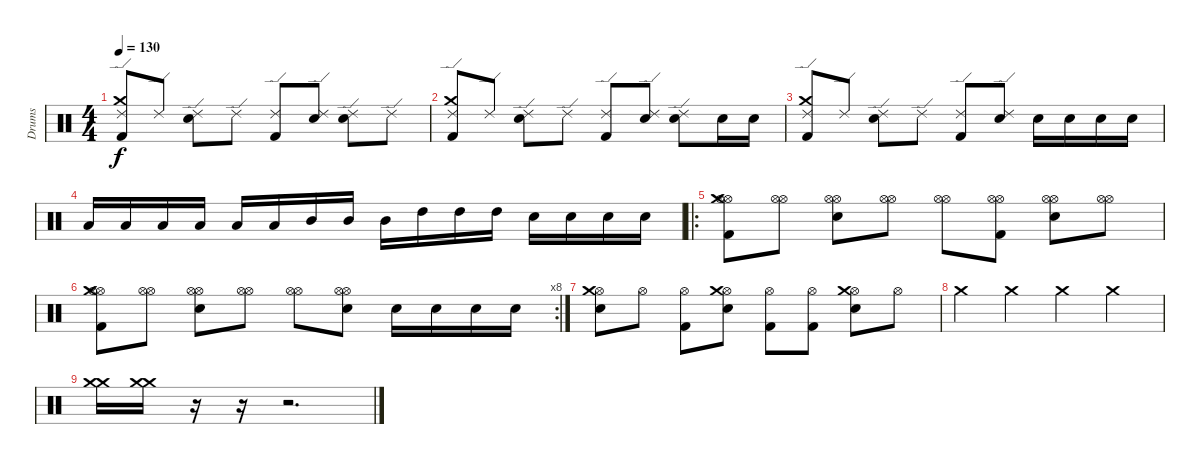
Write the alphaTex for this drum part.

\track ("Drums" "Drums") {instrument percussion}
\staff {score}
\articulation defaults
\ts (4 4)
\tempo 130
\clef neutral
\ks c
("Ride (edge) 2" "Crash medium (hit)" "Kick (hit) 2").8{dy f} "Ride (edge) 2".8 ("Ride (edge) 2" "Electric Snare (hit)").8 "Ride (edge) 2".8 ("Ride (edge) 2" "Kick (hit) 2").8 ("Ride (edge) 2" "Electric Snare (hit)").8 ("Ride (edge) 2" "Electric Snare (hit)").8 "Ride (edge) 2".8 |
("Ride (edge) 2" "Crash medium (hit)" "Kick (hit) 2").8 "Ride (edge) 2".8 ("Ride (edge) 2" "Electric Snare (hit)").8 "Ride (edge) 2".8 ("Ride (edge) 2" "Kick (hit) 2").8 ("Ride (edge) 2" "Electric Snare (hit)").8 ("Ride (edge) 2" "Electric Snare (hit)").8 "Electric Snare (hit)".16 "Electric Snare (hit)".16 |
("Ride (edge) 2" "Crash medium (hit)" "Kick (hit) 2").8 "Ride (edge) 2".8 ("Ride (edge) 2" "Electric Snare (hit)").8 "Ride (edge) 2".8 ("Ride (edge) 2" "Kick (hit) 2").8 ("Ride (edge) 2" "Electric Snare (hit)").8 "Electric Snare (hit)".16 "Electric Snare (hit)".16 "Electric Snare (hit)".16 "Electric Snare (hit)".16 |
"Low Floor Tom (hit)".16 "Low Floor Tom (hit)".16 "Low Floor Tom (hit)".16 "Low Tom (hit)".16 "Low Tom (hit)".16 "Low Tom (hit)".16 "Mid Tom (hit)".16 "Mid Tom (hit)".16 "Mid Tom (hit)".16 "High Tom (hit)".16 "High Tom (hit)".16 "High Tom (hit)".16 "Electric Snare (hit)".16 "Electric Snare (hit)".16 "Electric Snare (hit)".16 "Electric Snare (hit)".16 |
\ro
("Hi-Hat (open)" "Hi-Hat (open)" "Crash medium (hit)" "Kick (hit) 2").8 ("Hi-Hat (open)" "Hi-Hat (open)").8 ("Hi-Hat (open)" "Hi-Hat (open)" "Electric Snare (hit)").8 ("Hi-Hat (open)" "Hi-Hat (open)").8 ("Hi-Hat (open)" "Hi-Hat (open)").8 ("Hi-Hat (open)" "Hi-Hat (open)" "Kick (hit) 2").8 ("Hi-Hat (open)" "Hi-Hat (open)" "Electric Snare (hit)").8 ("Hi-Hat (open)" "Hi-Hat (open)").8 |
\rc 8
("Hi-Hat (open)" "Hi-Hat (open)" "Crash medium (hit)" "Kick (hit) 2").8 ("Hi-Hat (open)" "Hi-Hat (open)").8 ("Hi-Hat (open)" "Hi-Hat (open)" "Electric Snare (hit)").8 ("Hi-Hat (open)" "Hi-Hat (open)").8 ("Hi-Hat (open)" "Hi-Hat (open)").8 ("Hi-Hat (open)" "Hi-Hat (open)" "Electric Snare (hit)").8 "Electric Snare (hit)".16 "Electric Snare (hit)".16 "Electric Snare (hit)".16 "Electric Snare (hit)".16 |
("Hi-Hat (open)" "Crash medium (hit)" "Electric Snare (hit)").8 "Hi-Hat (open)".8 ("Hi-Hat (open)" "Kick (hit) 2").8 ("Hi-Hat (open)" "Crash medium (hit)" "Electric Snare (hit)").8 ("Hi-Hat (open)" "Kick (hit) 2").8 ("Hi-Hat (open)" "Kick (hit) 2").8 ("Hi-Hat (open)" "Crash medium (hit)" "Electric Snare (hit)").8 "Hi-Hat (open)".8 |
"Crash medium (hit)".4 "Crash medium (hit)".4 "Crash medium (hit)".4 "Crash medium (hit)".4 |
("Crash medium (hit)" "Crash medium (hit)").16 ("Crash medium (hit)" "Crash medium (hit)").16 r.16 r.16 r.2{d}
